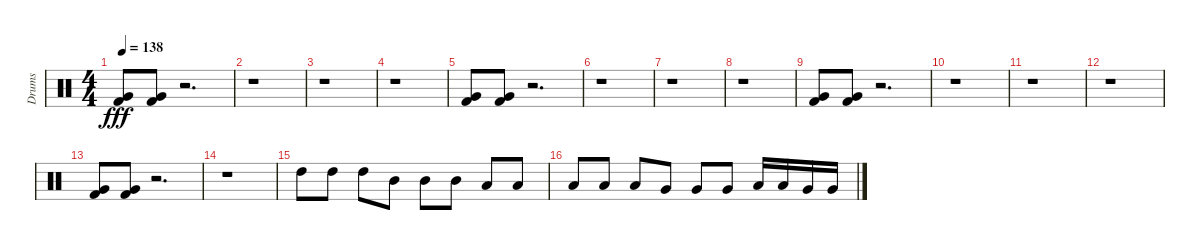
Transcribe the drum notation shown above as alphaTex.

\track ("Drums" "Drums") {instrument percussion}
\staff {score}
\articulation defaults
\ts (4 4)
\tempo 138
\clef neutral
\ks c
("Kick (hit) 2" "Very Low Tom (hit)").8{dy fff} ("Kick (hit) 2" "Very Low Tom (hit)").8 r.2{d} |
r.1 |
r.1 |
r.1 |
("Kick (hit) 2" "Very Low Tom (hit)").8 ("Kick (hit) 2" "Very Low Tom (hit)").8 r.2{d} |
r.1 |
r.1 |
r.1 |
("Kick (hit) 2" "Very Low Tom (hit)").8 ("Kick (hit) 2" "Very Low Tom (hit)").8 r.2{d} |
r.1 |
r.1 |
r.1 |
("Kick (hit) 2" "Very Low Tom (hit)").8 ("Kick (hit) 2" "Very Low Tom (hit)").8 r.2{d} |
r.1 |
"High Tom (hit)".8 "High Tom (hit)".8 "High Tom (hit)".8 "Mid Tom (hit)".8 "Mid Tom (hit)".8 "Mid Tom (hit)".8 "Low Tom (hit)".8 "Low Tom (hit)".8 |
"Low Tom (hit)".8 "Low Tom (hit)".8 "Low Tom (hit)".8 "Very Low Tom (hit)".8 "Very Low Tom (hit)".8 "Very Low Tom (hit)".8 "Low Tom (hit)".16 "Low Tom (hit)".16 "Very Low Tom (hit)".16 "Very Low Tom (hit)".16
